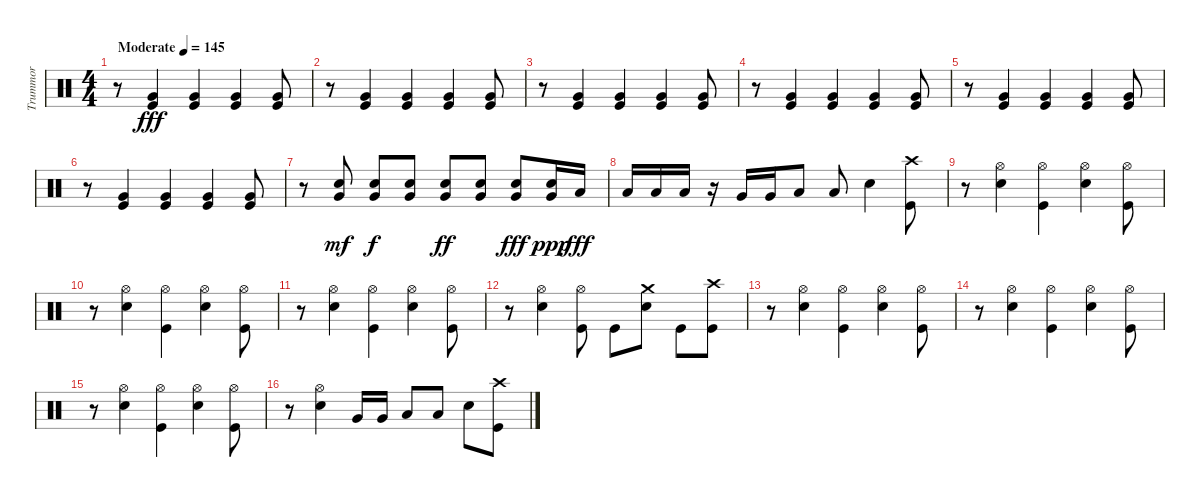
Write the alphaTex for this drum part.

\track ("Trummor" "Trummor") {instrument percussion}
\staff {score}
\articulation defaults
\ts (4 4)
\tempo (145 "Moderate")
\clef neutral
\ks c
r.8{dy fff} ("Kick (hit)" "Very Low Tom (hit)").4 ("Kick (hit)" "Very Low Tom (hit)").4 ("Kick (hit)" "Very Low Tom (hit)").4 ("Kick (hit)" "Very Low Tom (hit)").8 |
r.8 ("Kick (hit)" "Very Low Tom (hit)").4 ("Kick (hit)" "Very Low Tom (hit)").4 ("Kick (hit)" "Very Low Tom (hit)").4 ("Kick (hit)" "Very Low Tom (hit)").8 |
r.8 ("Kick (hit)" "Very Low Tom (hit)").4 ("Kick (hit)" "Very Low Tom (hit)").4 ("Kick (hit)" "Very Low Tom (hit)").4 ("Kick (hit)" "Very Low Tom (hit)").8 |
r.8 ("Kick (hit)" "Very Low Tom (hit)").4 ("Kick (hit)" "Very Low Tom (hit)").4 ("Kick (hit)" "Very Low Tom (hit)").4 ("Kick (hit)" "Very Low Tom (hit)").8 |
r.8 ("Kick (hit)" "Very Low Tom (hit)").4 ("Kick (hit)" "Very Low Tom (hit)").4 ("Kick (hit)" "Very Low Tom (hit)").4 ("Kick (hit)" "Very Low Tom (hit)").8 |
r.8 ("Kick (hit)" "Very Low Tom (hit)").4 ("Kick (hit)" "Very Low Tom (hit)").4 ("Kick (hit)" "Very Low Tom (hit)").4 ("Kick (hit)" "Very Low Tom (hit)").8 |
r.8 ("Snare (hit) 2" "Very Low Tom (hit)").8{dy mf} ("Snare (hit) 2" "Very Low Tom (hit)").8{dy f} ("Snare (hit) 2" "Very Low Tom (hit)").8 ("Snare (hit) 2" "Very Low Tom (hit)").8{dy ff} ("Snare (hit) 2" "Very Low Tom (hit)").8 ("Snare (hit) 2" "Very Low Tom (hit)").8{dy fff} ("Snare (hit) 2" "Very Low Tom (hit)").16{dy ppp} "Low Tom (hit)".16{dy fff} |
"Low Tom (hit)".16 "Low Tom (hit)".16 "Low Tom (hit)".16 r.16 "Very Low Tom (hit)".16 "Very Low Tom (hit)".16 "Low Floor Tom (hit)".8 "Low Floor Tom (hit)".8 "Snare (hit) 2".4 ("Crash high (hit)" "Kick (hit)").8 |
r.8 ("Hi-Hat (open)" "Snare (hit) 2").4 ("Hi-Hat (open)" "Kick (hit)").4 ("Hi-Hat (open)" "Snare (hit) 2").4 ("Hi-Hat (open)" "Kick (hit)").8 |
r.8 ("Hi-Hat (open)" "Snare (hit) 2").4 ("Hi-Hat (open)" "Kick (hit)").4 ("Hi-Hat (open)" "Snare (hit) 2").4 ("Hi-Hat (open)" "Kick (hit)").8 |
r.8 ("Hi-Hat (open)" "Snare (hit) 2").4 ("Hi-Hat (open)" "Kick (hit)").4 ("Hi-Hat (open)" "Snare (hit) 2").4 ("Hi-Hat (open)" "Kick (hit)").8 |
r.8 ("Hi-Hat (open)" "Snare (hit) 2").4 ("Hi-Hat (open)" "Kick (hit)").8 "Kick (hit)".8 ("Crash medium (hit)" "Snare (hit) 2").8 "Kick (hit)".8 ("Crash high (hit)" "Kick (hit)").8 |
r.8 ("Hi-Hat (open)" "Snare (hit) 2").4 ("Hi-Hat (open)" "Kick (hit)").4 ("Hi-Hat (open)" "Snare (hit) 2").4 ("Hi-Hat (open)" "Kick (hit)").8 |
r.8 ("Hi-Hat (open)" "Snare (hit) 2").4 ("Hi-Hat (open)" "Kick (hit)").4 ("Hi-Hat (open)" "Snare (hit) 2").4 ("Hi-Hat (open)" "Kick (hit)").8 |
r.8 ("Hi-Hat (open)" "Snare (hit) 2").4 ("Hi-Hat (open)" "Kick (hit)").4 ("Hi-Hat (open)" "Snare (hit) 2").4 ("Hi-Hat (open)" "Kick (hit)").8 |
r.8 ("Hi-Hat (open)" "Snare (hit) 2").4 "Very Low Tom (hit)".16 "Very Low Tom (hit)".16 "Low Floor Tom (hit)".8 "Low Floor Tom (hit)".8 "Snare (hit) 2".8 ("Crash high (hit)" "Kick (hit)").8
